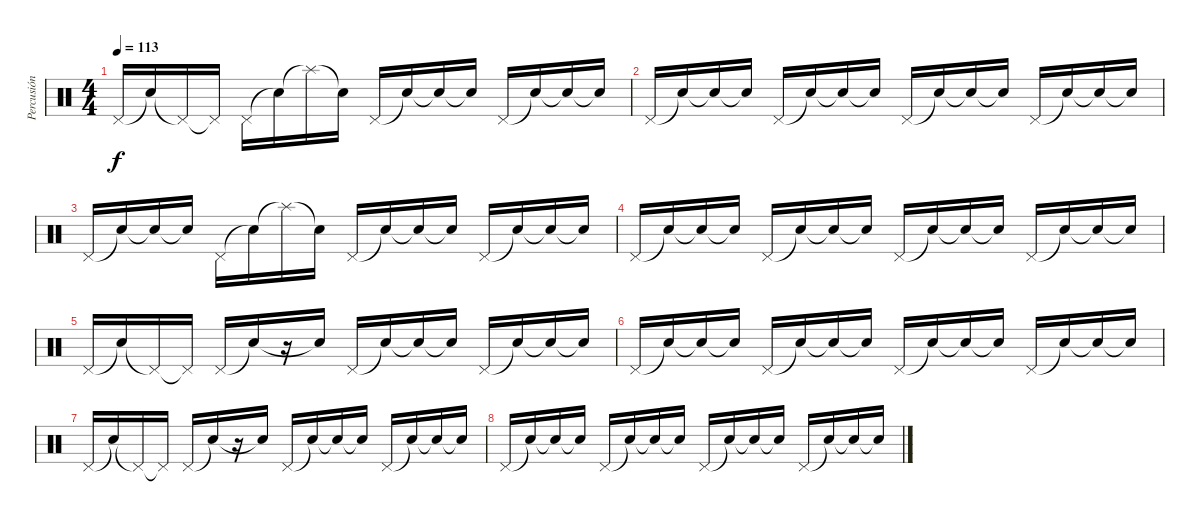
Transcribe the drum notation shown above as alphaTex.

\track ("Percusión" "Percusión") {instrument percussion}
\staff {score}
\articulation defaults
\ts (4 4)
\tempo 113
\clef neutral
\ks c "Pedal Hi-Hat (hit)".16{dy f} "Snare (hit)"{t}.16 "Pedal Hi-Hat (hit)"{t}.16 "Pedal Hi-Hat (hit)"{t}.16 "Pedal Hi-Hat (hit)".16 "Snare (hit)"{t}.16 "Splash (hit)"{t}.16 "Snare (hit)"{t}.16 "Pedal Hi-Hat (hit)".16 "Snare (hit)"{t}.16 "Snare (hit)"{t}.16 "Snare (hit)"{t}.16 "Pedal Hi-Hat (hit)".16 "Snare (hit)"{t}.16 "Snare (hit)"{t}.16 "Snare (hit)"{t}.16
|
"Pedal Hi-Hat (hit)".16 "Snare (hit)"{t}.16 "Snare (hit)"{t}.16 "Snare (hit)"{t}.16 "Pedal Hi-Hat (hit)".16 "Snare (hit)"{t}.16 "Snare (hit)"{t}.16 "Snare (hit)"{t}.16 "Pedal Hi-Hat (hit)".16 "Snare (hit)"{t}.16 "Snare (hit)"{t}.16 "Snare (hit)"{t}.16 "Pedal Hi-Hat (hit)".16 "Snare (hit)"{t}.16 "Snare (hit)"{t}.16 "Snare (hit)"{t}.16 |
"Pedal Hi-Hat (hit)".16 "Snare (hit)"{t}.16 "Snare (hit)"{t}.16 "Snare (hit)"{t}.16 "Pedal Hi-Hat (hit)".16 "Snare (hit)"{t}.16 "Splash (hit)"{t}.16 "Snare (hit)"{t}.16 "Pedal Hi-Hat (hit)".16 "Snare (hit)"{t}.16 "Snare (hit)"{t}.16 "Snare (hit)"{t}.16 "Pedal Hi-Hat (hit)".16 "Snare (hit)"{t}.16 "Snare (hit)"{t}.16 "Snare (hit)"{t}.16 |
"Pedal Hi-Hat (hit)".16 "Snare (hit)"{t}.16 "Snare (hit)"{t}.16 "Snare (hit)"{t}.16 "Pedal Hi-Hat (hit)".16 "Snare (hit)"{t}.16 "Snare (hit)"{t}.16 "Snare (hit)"{t}.16 "Pedal Hi-Hat (hit)".16 "Snare (hit)"{t}.16 "Snare (hit)"{t}.16 "Snare (hit)"{t}.16 "Pedal Hi-Hat (hit)".16 "Snare (hit)"{t}.16 "Snare (hit)"{t}.16 "Snare (hit)"{t}.16 |
"Pedal Hi-Hat (hit)".16 "Snare (hit)"{t}.16 "Pedal Hi-Hat (hit)"{t}.16 "Pedal Hi-Hat (hit)"{t}.16 "Pedal Hi-Hat (hit)".16 "Snare (hit)"{t}.16 r.16 "Snare (hit)"{t}.16 "Pedal Hi-Hat (hit)".16 "Snare (hit)"{t}.16 "Snare (hit)"{t}.16 "Snare (hit)"{t}.16 "Pedal Hi-Hat (hit)".16 "Snare (hit)"{t}.16 "Snare (hit)"{t}.16 "Snare (hit)"{t}.16 |
"Pedal Hi-Hat (hit)".16{volume 10} "Snare (hit)"{t}.16 "Snare (hit)"{t}.16 "Snare (hit)"{t}.16 "Pedal Hi-Hat (hit)".16 "Snare (hit)"{t}.16 "Snare (hit)"{t}.16 "Snare (hit)"{t}.16 "Pedal Hi-Hat (hit)".16 "Snare (hit)"{t}.16 "Snare (hit)"{t}.16 "Snare (hit)"{t}.16 "Pedal Hi-Hat (hit)".16 "Snare (hit)"{t}.16 "Snare (hit)"{t}.16 "Snare (hit)"{t}.16 |
"Pedal Hi-Hat (hit)".16{volume 8} "Snare (hit)"{t}.16 "Pedal Hi-Hat (hit)"{t}.16 "Pedal Hi-Hat (hit)"{t}.16 "Pedal Hi-Hat (hit)".16 "Snare (hit)"{t}.16 r.16 "Snare (hit)"{t}.16 "Pedal Hi-Hat (hit)".16 "Snare (hit)"{t}.16 "Snare (hit)"{t}.16 "Snare (hit)"{t}.16 "Pedal Hi-Hat (hit)".16 "Snare (hit)"{t}.16 "Snare (hit)"{t}.16 "Snare (hit)"{t}.16 |
"Pedal Hi-Hat (hit)".16{volume 4} "Snare (hit)"{t}.16 "Snare (hit)"{t}.16 "Snare (hit)"{t}.16 "Pedal Hi-Hat (hit)".16 "Snare (hit)"{t}.16 "Snare (hit)"{t}.16 "Snare (hit)"{t}.16 "Pedal Hi-Hat (hit)".16 "Snare (hit)"{t}.16 "Snare (hit)"{t}.16 "Snare (hit)"{t}.16 "Pedal Hi-Hat (hit)".16 "Snare (hit)"{t}.16 "Snare (hit)"{t}.16 "Snare (hit)"{t}.16
